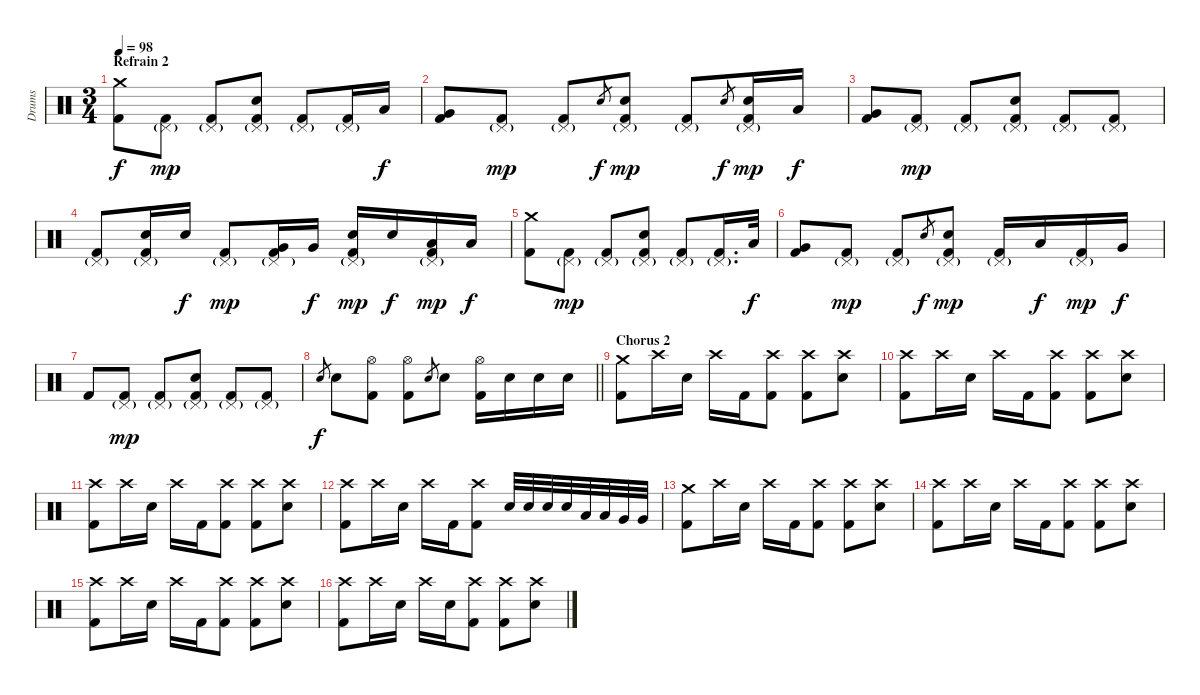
\track ("Drums" "Drums") {instrument percussion}
\staff {score}
\articulation defaults
\ts (3 4)
\section ("" "Refrain 2")
\tempo 98
\clef neutral
\ks c
("Crash medium (hit)" "Kick (hit) 2").8{dy f} ("Pedal Hi-Hat (hit)"{g} "Kick (hit) 2").8{dy mp} ("Pedal Hi-Hat (hit)"{g} "Kick (hit) 2").8 ("Pedal Hi-Hat (hit)"{g} "Electric Snare (hit)" "Kick (hit) 2").8 ("Pedal Hi-Hat (hit)"{g} "Kick (hit) 2").8 ("Pedal Hi-Hat (hit)"{g} "Kick (hit) 2").16 "Low Tom (hit)".16{dy f} |
("Very Low Tom (hit)" "Kick (hit) 2").8 ("Pedal Hi-Hat (hit)"{g} "Kick (hit) 2").8{dy mp} ("Pedal Hi-Hat (hit)"{g} "Kick (hit) 2").8 "Electric Snare (hit)".8{gr dy f} ("Pedal Hi-Hat (hit)"{g} "Electric Snare (hit)" "Kick (hit) 2").8{dy mp} ("Pedal Hi-Hat (hit)"{g} "Kick (hit) 2").8 "Electric Snare (hit)".8{gr dy f} ("Pedal Hi-Hat (hit)"{g} "Electric Snare (hit)" "Kick (hit) 2").16{dy mp} "Low Tom (hit)".16{dy f} |
("Very Low Tom (hit)" "Kick (hit) 2").8 ("Pedal Hi-Hat (hit)"{g} "Kick (hit) 2").8{dy mp} ("Pedal Hi-Hat (hit)"{g} "Kick (hit) 2").8 ("Pedal Hi-Hat (hit)"{g} "Electric Snare (hit)" "Kick (hit) 2").8 ("Pedal Hi-Hat (hit)"{g} "Kick (hit) 2").8 ("Pedal Hi-Hat (hit)"{g} "Kick (hit) 2").8 |
("Pedal Hi-Hat (hit)"{g} "Kick (hit) 2").8 ("Pedal Hi-Hat (hit)"{g} "Electric Snare (hit)" "Kick (hit) 2").16 "Electric Snare (hit)".16{dy f} ("Pedal Hi-Hat (hit)"{g} "Kick (hit) 2").8{dy mp} ("Pedal Hi-Hat (hit)"{g} "Very Low Tom (hit)" "Kick (hit) 2").16 "Very Low Tom (hit)".16{dy f} ("Pedal Hi-Hat (hit)"{g} "Electric Snare (hit)" "Kick (hit) 2").16{dy mp} "Electric Snare (hit)".16{dy f} ("Pedal Hi-Hat (hit)"{g} "Low Tom (hit)" "Kick (hit) 2").16{dy mp} "Low Tom (hit)".16{dy f} |
("Crash medium (hit)" "Kick (hit) 2").8 ("Pedal Hi-Hat (hit)"{g} "Kick (hit) 2").8{dy mp} ("Pedal Hi-Hat (hit)"{g} "Kick (hit) 2").8 ("Pedal Hi-Hat (hit)"{g} "Electric Snare (hit)" "Kick (hit) 2").8 ("Pedal Hi-Hat (hit)"{g} "Kick (hit) 2").8 ("Pedal Hi-Hat (hit)"{g} "Kick (hit) 2").16{d} "Low Tom (hit)".32{dy f} |
("Very Low Tom (hit)" "Kick (hit) 2").8 ("Pedal Hi-Hat (hit)"{g} "Kick (hit) 2").8{dy mp} ("Pedal Hi-Hat (hit)"{g} "Kick (hit) 2").8 "Electric Snare (hit)".8{gr dy f} ("Pedal Hi-Hat (hit)"{g} "Electric Snare (hit)" "Kick (hit) 2").8{dy mp} ("Pedal Hi-Hat (hit)"{g} "Kick (hit) 2").16 "Low Tom (hit)".16{dy f} ("Pedal Hi-Hat (hit)"{g} "Kick (hit) 2").16{dy mp} "Very Low Tom (hit)".16{dy f} |
"Kick (hit) 2".8 ("Pedal Hi-Hat (hit)"{g} "Kick (hit) 2").8{dy mp} ("Pedal Hi-Hat (hit)"{g} "Kick (hit) 2").8 ("Pedal Hi-Hat (hit)"{g} "Electric Snare (hit)" "Kick (hit) 2").8 ("Pedal Hi-Hat (hit)"{g} "Kick (hit) 2").8 ("Pedal Hi-Hat (hit)"{g} "Kick (hit) 2").8 |
\barLineRight lightlight "Electric Snare (hit)".8{gr dy f} "Electric Snare (hit)".8
("Hi-Hat (open)" "Kick (hit) 2").8 ("Hi-Hat (open)" "Kick (hit) 2").8 "Electric Snare (hit)".8{gr} "Electric Snare (hit)".8 ("Hi-Hat (open)" "Kick (hit) 2").16 "Electric Snare (hit)".16 "Electric Snare (hit)".16 "Electric Snare (hit)".16 |
\section ("" "Chorus 2")
("Crash medium (hit)" "Kick (hit) 2").8 "Crash high (hit)".16 "Electric Snare (hit)".16 "Crash high (hit)".16 "Kick (hit) 2".16 ("Crash high (hit)" "Kick (hit) 2").8 ("Crash high (hit)" "Kick (hit) 2").8 ("Crash high (hit)" "Electric Snare (hit)").8 |
("Crash high (hit)" "Kick (hit) 2").8 "Crash high (hit)".16 "Electric Snare (hit)".16 "Crash high (hit)".16 "Kick (hit) 2".16 ("Crash high (hit)" "Kick (hit) 2").8 ("Crash high (hit)" "Kick (hit) 2").8 ("Crash high (hit)" "Electric Snare (hit)").8 |
("Crash high (hit)" "Kick (hit) 2").8 "Crash high (hit)".16 "Electric Snare (hit)".16 "Crash high (hit)".16 "Kick (hit) 2".16 ("Crash high (hit)" "Kick (hit) 2").8 ("Crash high (hit)" "Kick (hit) 2").8 ("Crash high (hit)" "Electric Snare (hit)").8 |
("Crash high (hit)" "Kick (hit) 2").8 "Crash high (hit)".16 "Electric Snare (hit)".16 "Crash high (hit)".16 "Kick (hit) 2".16 ("Crash high (hit)" "Kick (hit) 2").8 "Electric Snare (hit)".32 "Electric Snare (hit)".32 "Electric Snare (hit)".32 "Electric Snare (hit)".32 "Low Tom (hit)".32 "Low Tom (hit)".32 "Very Low Tom (hit)".32 "Very Low Tom (hit)".32 |
("Crash medium (hit)" "Kick (hit) 2").8 "Crash high (hit)".16 "Electric Snare (hit)".16 "Crash high (hit)".16 "Kick (hit) 2".16 ("Crash high (hit)" "Kick (hit) 2").8 ("Crash high (hit)" "Kick (hit) 2").8 ("Crash high (hit)" "Electric Snare (hit)").8 |
("Crash high (hit)" "Kick (hit) 2").8 "Crash high (hit)".16 "Electric Snare (hit)".16 "Crash high (hit)".16 "Kick (hit) 2".16 ("Crash high (hit)" "Kick (hit) 2").8 ("Crash high (hit)" "Kick (hit) 2").8 ("Crash high (hit)" "Electric Snare (hit)").8 |
("Crash high (hit)" "Kick (hit) 2").8 "Crash high (hit)".16 "Electric Snare (hit)".16 "Crash high (hit)".16 "Kick (hit) 2".16 ("Crash high (hit)" "Kick (hit) 2").8 ("Crash high (hit)" "Kick (hit) 2").8 ("Crash high (hit)" "Electric Snare (hit)").8 |
("Crash high (hit)" "Kick (hit) 2").8 "Crash high (hit)".16 "Electric Snare (hit)".16 "Crash high (hit)".16 "Electric Snare (hit)".16 ("Crash high (hit)" "Kick (hit) 2").8 ("Crash high (hit)" "Kick (hit) 2").8 ("Crash high (hit)" "Electric Snare (hit)").8
